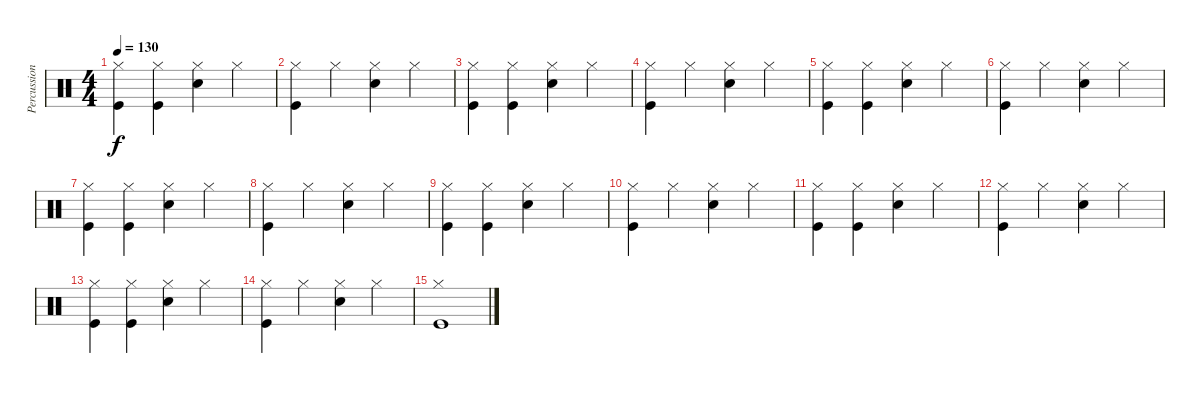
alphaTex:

\track ("Percussion" "Percussion") {instrument percussion}
\staff {score}
\articulation defaults
\ts (4 4)
\tempo 130
\clef neutral
\ks c
("Hi-Hat (closed)" "Kick (hit)").4{dy f} ("Hi-Hat (closed)" "Kick (hit)").4 ("Hi-Hat (closed)" "Snare (hit) 2").4 "Hi-Hat (closed)".4 |
("Hi-Hat (closed)" "Kick (hit)").4 "Hi-Hat (closed)".4 ("Hi-Hat (closed)" "Snare (hit) 2").4 "Hi-Hat (closed)".4 |
("Hi-Hat (closed)" "Kick (hit)").4 ("Hi-Hat (closed)" "Kick (hit)").4 ("Hi-Hat (closed)" "Snare (hit) 2").4 "Hi-Hat (closed)".4 |
("Hi-Hat (closed)" "Kick (hit)").4 "Hi-Hat (closed)".4 ("Hi-Hat (closed)" "Snare (hit) 2").4 "Hi-Hat (closed)".4 |
("Hi-Hat (closed)" "Kick (hit)").4 ("Hi-Hat (closed)" "Kick (hit)").4 ("Hi-Hat (closed)" "Snare (hit) 2").4 "Hi-Hat (closed)".4 |
("Hi-Hat (closed)" "Kick (hit)").4 "Hi-Hat (closed)".4 ("Hi-Hat (closed)" "Snare (hit) 2").4 "Hi-Hat (closed)".4 |
("Hi-Hat (closed)" "Kick (hit)").4 ("Hi-Hat (closed)" "Kick (hit)").4 ("Hi-Hat (closed)" "Snare (hit) 2").4 "Hi-Hat (closed)".4 |
("Hi-Hat (closed)" "Kick (hit)").4 "Hi-Hat (closed)".4 ("Hi-Hat (closed)" "Snare (hit) 2").4 "Hi-Hat (closed)".4 |
("Hi-Hat (closed)" "Kick (hit)").4 ("Hi-Hat (closed)" "Kick (hit)").4 ("Hi-Hat (closed)" "Snare (hit) 2").4 "Hi-Hat (closed)".4 |
("Hi-Hat (closed)" "Kick (hit)").4 "Hi-Hat (closed)".4 ("Hi-Hat (closed)" "Snare (hit) 2").4 "Hi-Hat (closed)".4 |
("Hi-Hat (closed)" "Kick (hit)").4 ("Hi-Hat (closed)" "Kick (hit)").4 ("Hi-Hat (closed)" "Snare (hit) 2").4 "Hi-Hat (closed)".4 |
("Hi-Hat (closed)" "Kick (hit)").4 "Hi-Hat (closed)".4 ("Hi-Hat (closed)" "Snare (hit) 2").4 "Hi-Hat (closed)".4 |
("Hi-Hat (closed)" "Kick (hit)").4 ("Hi-Hat (closed)" "Kick (hit)").4 ("Hi-Hat (closed)" "Snare (hit) 2").4 "Hi-Hat (closed)".4 |
("Hi-Hat (closed)" "Kick (hit)").4 "Hi-Hat (closed)".4 ("Hi-Hat (closed)" "Snare (hit) 2").4 "Hi-Hat (closed)".4 |
("Hi-Hat (closed)" "Kick (hit)").1
